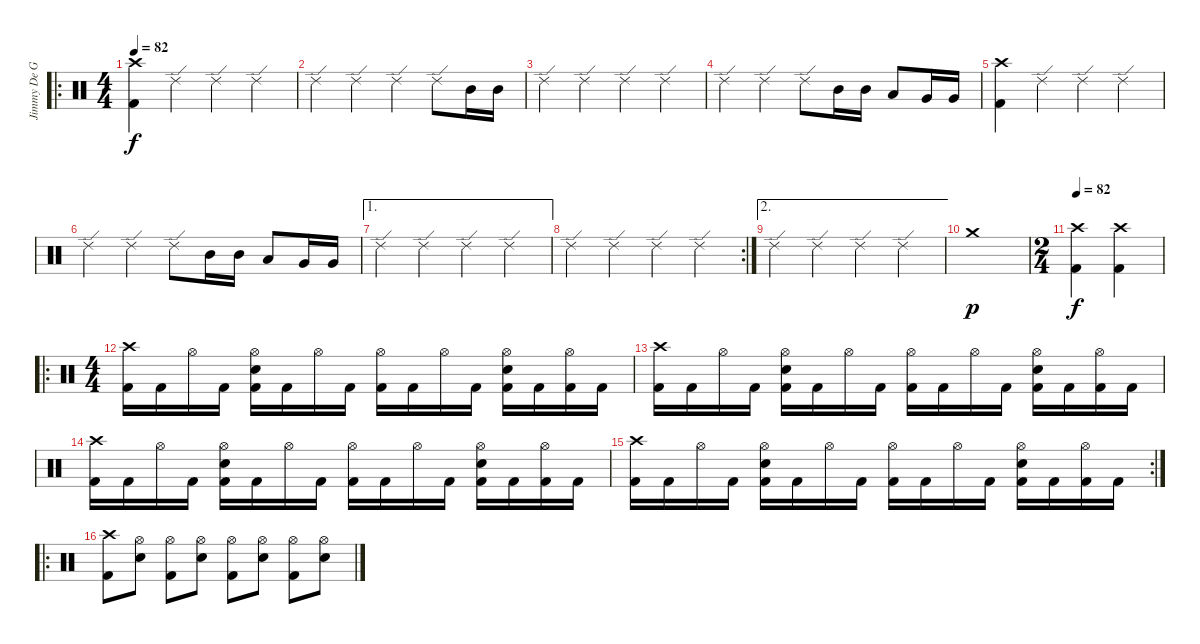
\track ("Jimmy De Grasso" "Jimmy De G") {instrument percussion}
\staff {score}
\articulation defaults
\ro
\ts (4 4)
\tempo 82
\tempo 110
\tempo 82
\clef neutral
\ks c
("Crash high (hit)" "Kick (hit) 2").4{dy f} "Ride (edge) 2".4 "Ride (edge) 2".4 "Ride (edge) 2".4 |
"Ride (edge) 2".4 "Ride (edge) 2".4 "Ride (edge) 2".4 "Ride (edge) 2".8 "Mid Tom (hit)".16 "Mid Tom (hit)".16 |
"Ride (edge) 2".4 "Ride (edge) 2".4 "Ride (edge) 2".4 "Ride (edge) 2".4 |
"Ride (edge) 2".4 "Ride (edge) 2".4 "Ride (edge) 2".8 "Mid Tom (hit)".16 "Mid Tom (hit)".16 "Low Tom (hit)".8 "Very Low Tom (hit)".16 "Very Low Tom (hit)".16 |
("Crash high (hit)" "Kick (hit) 2").4 "Ride (edge) 2".4 "Ride (edge) 2".4 "Ride (edge) 2".4 |
"Ride (edge) 2".4 "Ride (edge) 2".4 "Ride (edge) 2".8 "Mid Tom (hit)".16 "Mid Tom (hit)".16 "Low Tom (hit)".8 "Very Low Tom (hit)".16 "Very Low Tom (hit)".16 |
\ae 1 "Ride (edge) 2".4 "Ride (edge) 2".4 "Ride (edge) 2".4 "Ride (edge) 2".4
|
\rc 2 "Ride (edge) 2".4 "Ride (edge) 2".4 "Ride (edge) 2".4 "Ride (edge) 2".4
|
\ae 2 "Ride (edge) 2".4 "Ride (edge) 2".4 "Ride (edge) 2".4 "Ride (edge) 2".4
|
"Crash medium (hit)"{tr (57 64)}.1{dy p} |
\ts (2 4)
\tempo 82
("Crash high (hit)" "Kick (hit) 2").4{dy f} ("Crash high (hit)" "Kick (hit) 2").4 |
\ro
\ts (4 4)
("Crash high (hit)" "Kick (hit) 2").16 "Kick (hit) 2".16 "Hi-Hat (open)".16 "Kick (hit) 2".16 ("Hi-Hat (open)" "Snare (hit) 2" "Kick (hit) 2").16 "Kick (hit) 2".16 "Hi-Hat (open)".16 "Kick (hit) 2".16 ("Hi-Hat (open)" "Kick (hit) 2").16 "Kick (hit) 2".16 "Hi-Hat (open)".16 "Kick (hit) 2".16 ("Hi-Hat (open)" "Snare (hit) 2" "Kick (hit) 2").16 "Kick (hit) 2".16 ("Hi-Hat (open)" "Kick (hit) 2").16 "Kick (hit) 2".16 |
("Crash high (hit)" "Kick (hit) 2").16 "Kick (hit) 2".16 "Hi-Hat (open)".16 "Kick (hit) 2".16 ("Hi-Hat (open)" "Snare (hit) 2" "Kick (hit) 2").16 "Kick (hit) 2".16 "Hi-Hat (open)".16 "Kick (hit) 2".16 ("Hi-Hat (open)" "Kick (hit) 2").16 "Kick (hit) 2".16 "Hi-Hat (open)".16 "Kick (hit) 2".16 ("Hi-Hat (open)" "Snare (hit) 2" "Kick (hit) 2").16 "Kick (hit) 2".16 ("Hi-Hat (open)" "Kick (hit) 2").16 "Kick (hit) 2".16 |
("Crash high (hit)" "Kick (hit) 2").16 "Kick (hit) 2".16 "Hi-Hat (open)".16 "Kick (hit) 2".16 ("Hi-Hat (open)" "Snare (hit) 2" "Kick (hit) 2").16 "Kick (hit) 2".16 "Hi-Hat (open)".16 "Kick (hit) 2".16 ("Hi-Hat (open)" "Kick (hit) 2").16 "Kick (hit) 2".16 "Hi-Hat (open)".16 "Kick (hit) 2".16 ("Hi-Hat (open)" "Snare (hit) 2" "Kick (hit) 2").16 "Kick (hit) 2".16 ("Hi-Hat (open)" "Kick (hit) 2").16 "Kick (hit) 2".16 |
\rc 2
("Crash high (hit)" "Kick (hit) 2").16 "Kick (hit) 2".16 "Hi-Hat (open)".16 "Kick (hit) 2".16 ("Hi-Hat (open)" "Snare (hit) 2" "Kick (hit) 2").16 "Kick (hit) 2".16 "Hi-Hat (open)".16 "Kick (hit) 2".16 ("Hi-Hat (open)" "Kick (hit) 2").16 "Kick (hit) 2".16 "Hi-Hat (open)".16 "Kick (hit) 2".16 ("Hi-Hat (open)" "Snare (hit) 2" "Kick (hit) 2").16 "Kick (hit) 2".16 ("Hi-Hat (open)" "Kick (hit) 2").16 "Kick (hit) 2".16 |
\ro
("Crash high (hit)" "Kick (hit) 2").8 ("Hi-Hat (open)" "Snare (hit) 2").8 ("Hi-Hat (open)" "Kick (hit) 2").8 ("Hi-Hat (open)" "Snare (hit) 2").8 ("Hi-Hat (open)" "Kick (hit) 2").8 ("Hi-Hat (open)" "Snare (hit) 2").8 ("Hi-Hat (open)" "Kick (hit) 2").8 ("Hi-Hat (open)" "Snare (hit) 2").8
